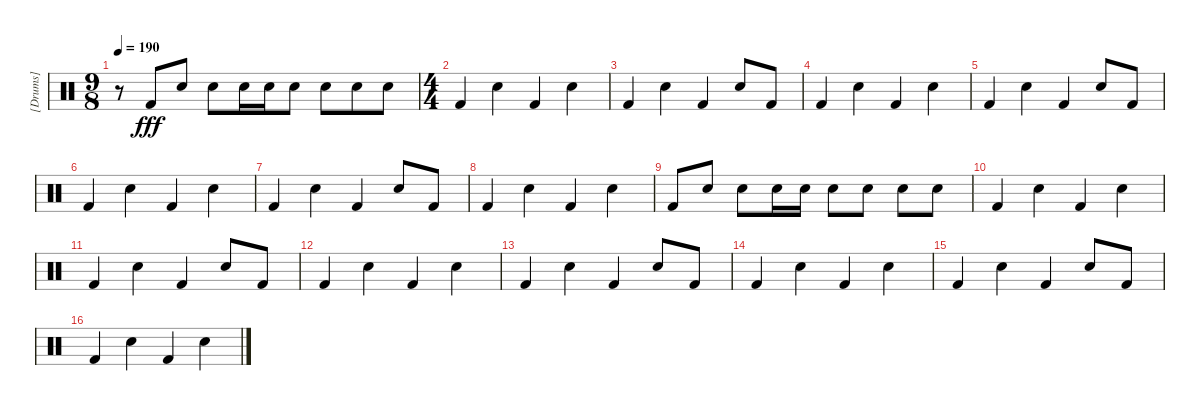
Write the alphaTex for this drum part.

\track ("[Drums]" "[Drums]") {instrument percussion}
\staff {score}
\articulation defaults
\ts (9 8)
\tempo 190
\clef neutral
\ks c
r.8{dy fff} "Kick (hit) 2".8 "Electric Snare (hit)".8 "Electric Snare (hit)".8 "Electric Snare (hit)".16 "Electric Snare (hit)".16 "Electric Snare (hit)".8 "Electric Snare (hit)".8 "Electric Snare (hit)".8 "Electric Snare (hit)".8 |
\ts (4 4)
"Kick (hit) 2".4 "Electric Snare (hit)".4 "Kick (hit) 2".4 "Electric Snare (hit)".4 |
"Kick (hit) 2".4 "Electric Snare (hit)".4 "Kick (hit) 2".4 "Electric Snare (hit)".8 "Kick (hit) 2".8 |
"Kick (hit) 2".4 "Electric Snare (hit)".4 "Kick (hit) 2".4 "Electric Snare (hit)".4 |
"Kick (hit) 2".4 "Electric Snare (hit)".4 "Kick (hit) 2".4 "Electric Snare (hit)".8 "Kick (hit) 2".8 |
"Kick (hit) 2".4 "Electric Snare (hit)".4 "Kick (hit) 2".4 "Electric Snare (hit)".4 |
"Kick (hit) 2".4 "Electric Snare (hit)".4 "Kick (hit) 2".4 "Electric Snare (hit)".8 "Kick (hit) 2".8 |
"Kick (hit) 2".4 "Electric Snare (hit)".4 "Kick (hit) 2".4 "Electric Snare (hit)".4 |
"Kick (hit) 2".8 "Electric Snare (hit)".8 "Electric Snare (hit)".8 "Electric Snare (hit)".16 "Electric Snare (hit)".16 "Electric Snare (hit)".8 "Electric Snare (hit)".8 "Electric Snare (hit)".8 "Electric Snare (hit)".8 |
"Kick (hit) 2".4 "Electric Snare (hit)".4 "Kick (hit) 2".4 "Electric Snare (hit)".4 |
"Kick (hit) 2".4 "Electric Snare (hit)".4 "Kick (hit) 2".4 "Electric Snare (hit)".8 "Kick (hit) 2".8 |
"Kick (hit) 2".4 "Electric Snare (hit)".4 "Kick (hit) 2".4 "Electric Snare (hit)".4 |
"Kick (hit) 2".4 "Electric Snare (hit)".4 "Kick (hit) 2".4 "Electric Snare (hit)".8 "Kick (hit) 2".8 |
"Kick (hit) 2".4 "Electric Snare (hit)".4 "Kick (hit) 2".4 "Electric Snare (hit)".4 |
"Kick (hit) 2".4 "Electric Snare (hit)".4 "Kick (hit) 2".4 "Electric Snare (hit)".8 "Kick (hit) 2".8 |
"Kick (hit) 2".4 "Electric Snare (hit)".4 "Kick (hit) 2".4 "Electric Snare (hit)".4
